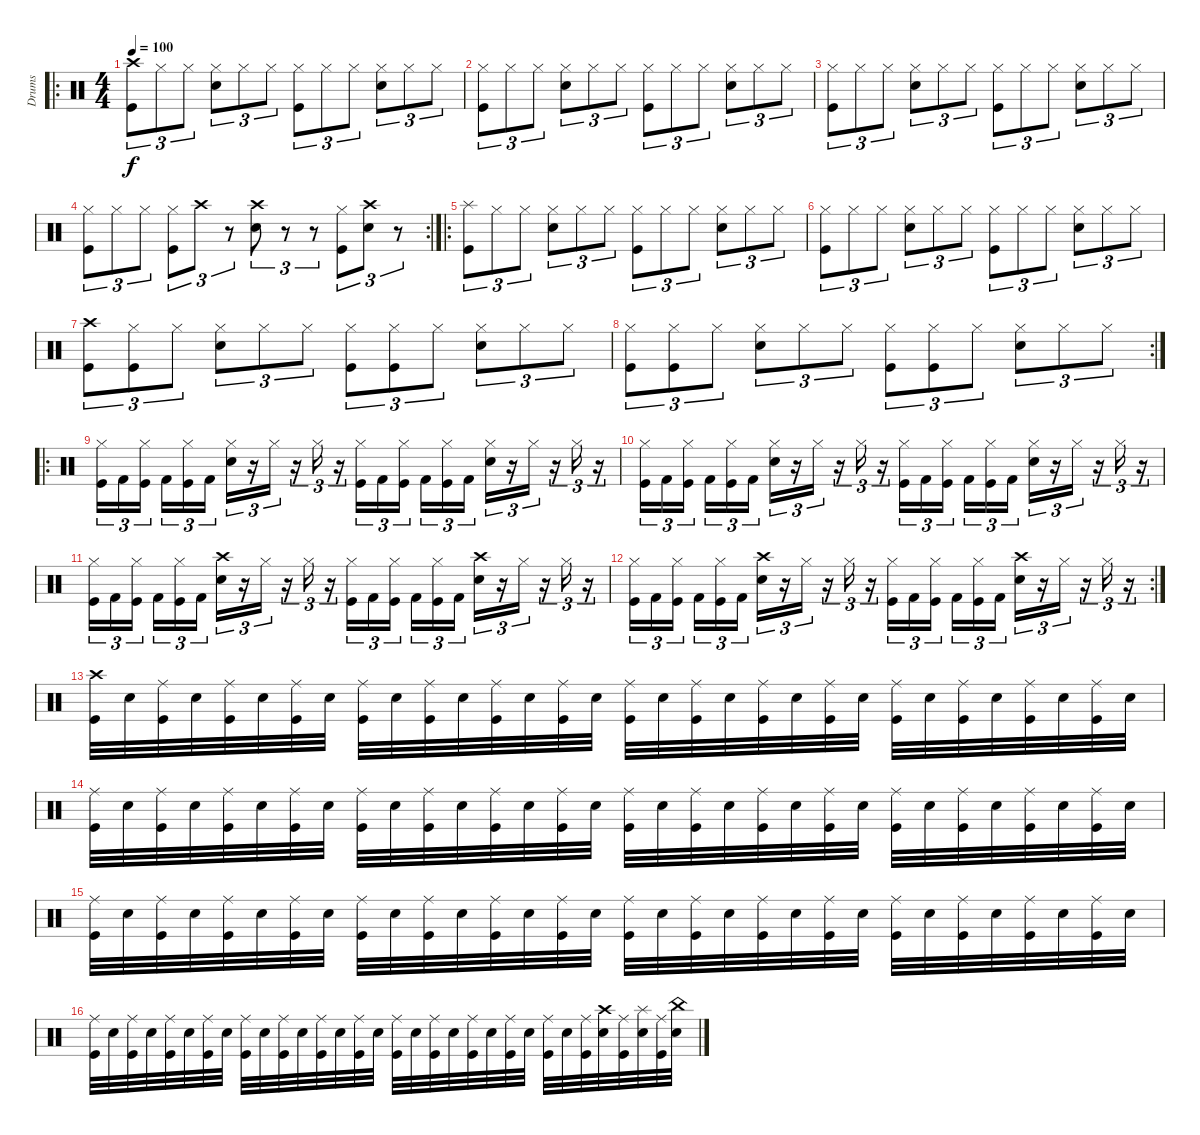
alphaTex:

\track ("Drums" "Drums") {instrument percussion}
\staff {score}
\articulation defaults
\ro
\ts (4 4)
\tempo 100
\clef neutral
\ks c
("Crash high (hit)" "Kick (hit)").8{tu (3 2) dy f} "Hi-Hat (closed)".8{tu (3 2)} "Hi-Hat (closed)".8{tu (3 2)} ("Hi-Hat (closed)" "Snare (hit) 2").8{tu (3 2)} "Hi-Hat (closed)".8{tu (3 2)} "Hi-Hat (closed)".8{tu (3 2)} ("Hi-Hat (closed)" "Kick (hit)").8{tu (3 2)} "Hi-Hat (closed)".8{tu (3 2)} "Hi-Hat (closed)".8{tu (3 2)} ("Hi-Hat (closed)" "Snare (hit) 2").8{tu (3 2)} "Hi-Hat (closed)".8{tu (3 2)} "Hi-Hat (closed)".8{tu (3 2)} |
("Hi-Hat (closed)" "Kick (hit)").8{tu (3 2)} "Hi-Hat (closed)".8{tu (3 2)} "Hi-Hat (closed)".8{tu (3 2)} ("Hi-Hat (closed)" "Snare (hit) 2").8{tu (3 2)} "Hi-Hat (closed)".8{tu (3 2)} "Hi-Hat (closed)".8{tu (3 2)} ("Hi-Hat (closed)" "Kick (hit)").8{tu (3 2)} "Hi-Hat (closed)".8{tu (3 2)} "Hi-Hat (closed)".8{tu (3 2)} ("Hi-Hat (closed)" "Snare (hit) 2").8{tu (3 2)} "Hi-Hat (closed)".8{tu (3 2)} "Hi-Hat (closed)".8{tu (3 2)} |
("Hi-Hat (closed)" "Kick (hit)").8{tu (3 2)} "Hi-Hat (closed)".8{tu (3 2)} "Hi-Hat (closed)".8{tu (3 2)} ("Hi-Hat (closed)" "Snare (hit) 2").8{tu (3 2)} "Hi-Hat (closed)".8{tu (3 2)} "Hi-Hat (closed)".8{tu (3 2)} ("Hi-Hat (closed)" "Kick (hit)").8{tu (3 2)} "Hi-Hat (closed)".8{tu (3 2)} "Hi-Hat (closed)".8{tu (3 2)} ("Hi-Hat (closed)" "Snare (hit) 2").8{tu (3 2)} "Hi-Hat (closed)".8{tu (3 2)} "Hi-Hat (closed)".8{tu (3 2)} |
\rc 2
("Hi-Hat (closed)" "Kick (hit)").8{tu (3 2)} "Hi-Hat (closed)".8{tu (3 2)} "Hi-Hat (closed)".8{tu (3 2)} ("Hi-Hat (closed)" "Kick (hit)").8{tu (3 2)} "Crash high (hit)".8{tu (3 2)} r.8{tu (3 2)} ("Crash high (hit)" "Snare (hit) 2").8{tu (3 2)} r.8{tu (3 2)} r.8{tu (3 2)} ("Hi-Hat (closed)" "Kick (hit)").8{tu (3 2)} ("Crash high (hit)" "Snare (hit) 2").8{tu (3 2)} r.8{tu (3 2)} |
\ro
("Splash (hit)" "Kick (hit)").8{tu (3 2)} "Hi-Hat (closed)".8{tu (3 2)} "Hi-Hat (closed)".8{tu (3 2)} ("Hi-Hat (closed)" "Snare (hit) 2").8{tu (3 2)} "Hi-Hat (closed)".8{tu (3 2)} "Hi-Hat (closed)".8{tu (3 2)} ("Hi-Hat (closed)" "Kick (hit)").8{tu (3 2)} "Hi-Hat (closed)".8{tu (3 2)} "Hi-Hat (closed)".8{tu (3 2)} ("Hi-Hat (closed)" "Snare (hit) 2").8{tu (3 2)} "Hi-Hat (closed)".8{tu (3 2)} "Hi-Hat (closed)".8{tu (3 2)} |
("Hi-Hat (closed)" "Kick (hit)").8{tu (3 2)} "Hi-Hat (closed)".8{tu (3 2)} "Hi-Hat (closed)".8{tu (3 2)} ("Hi-Hat (closed)" "Snare (hit) 2").8{tu (3 2)} "Hi-Hat (closed)".8{tu (3 2)} "Hi-Hat (closed)".8{tu (3 2)} ("Hi-Hat (closed)" "Kick (hit)").8{tu (3 2)} "Hi-Hat (closed)".8{tu (3 2)} "Hi-Hat (closed)".8{tu (3 2)} ("Hi-Hat (closed)" "Snare (hit) 2").8{tu (3 2)} "Hi-Hat (closed)".8{tu (3 2)} "Hi-Hat (closed)".8{tu (3 2)} |
("Crash high (hit)" "Kick (hit)").8{tu (3 2)} ("Kick (hit)" "Hi-Hat (closed)").8{tu (3 2)} "Hi-Hat (closed)".8{tu (3 2)} ("Hi-Hat (closed)" "Snare (hit) 2").8{tu (3 2)} "Hi-Hat (closed)".8{tu (3 2)} "Hi-Hat (closed)".8{tu (3 2)} ("Hi-Hat (closed)" "Kick (hit)").8{tu (3 2)} ("Kick (hit)" "Hi-Hat (closed)").8{tu (3 2)} "Hi-Hat (closed)".8{tu (3 2)} ("Hi-Hat (closed)" "Snare (hit) 2").8{tu (3 2)} "Hi-Hat (closed)".8{tu (3 2)} "Hi-Hat (closed)".8{tu (3 2)} |
\rc 2
("Hi-Hat (closed)" "Kick (hit)").8{tu (3 2)} ("Kick (hit)" "Hi-Hat (closed)").8{tu (3 2)} "Hi-Hat (closed)".8{tu (3 2)} ("Hi-Hat (closed)" "Snare (hit) 2").8{tu (3 2)} "Hi-Hat (closed)".8{tu (3 2)} "Hi-Hat (closed)".8{tu (3 2)} ("Hi-Hat (closed)" "Kick (hit)").8{tu (3 2)} ("Kick (hit)" "Hi-Hat (closed)").8{tu (3 2)} "Hi-Hat (closed)".8{tu (3 2)} ("Hi-Hat (closed)" "Snare (hit) 2").8{tu (3 2)} "Hi-Hat (closed)".8{tu (3 2)} "Hi-Hat (closed)".8{tu (3 2)} |
\ro
("Hi-Hat (closed)" "Kick (hit)").16{tu (3 2)} "Kick (hit) 2".16{tu (3 2)} ("Hi-Hat (closed)" "Kick (hit)").16{tu (3 2)} "Kick (hit) 2".16{tu (3 2)} ("Hi-Hat (closed)" "Kick (hit)").16{tu (3 2)} "Kick (hit) 2".16{tu (3 2)} ("Hi-Hat (closed)" "Snare (hit) 2").16{tu (3 2)} r.16{tu (3 2)} "Hi-Hat (closed)".16{tu (3 2)} r.16{tu (3 2)} "Hi-Hat (closed)".16{tu (3 2)} r.16{tu (3 2)} ("Hi-Hat (closed)" "Kick (hit)").16{tu (3 2)} "Kick (hit) 2".16{tu (3 2)} ("Hi-Hat (closed)" "Kick (hit)").16{tu (3 2)} "Kick (hit) 2".16{tu (3 2)} ("Hi-Hat (closed)" "Kick (hit)").16{tu (3 2)} "Kick (hit) 2".16{tu (3 2)} ("Hi-Hat (closed)" "Snare (hit) 2").16{tu (3 2)} r.16{tu (3 2)} "Hi-Hat (closed)".16{tu (3 2)} r.16{tu (3 2)} "Hi-Hat (closed)".16{tu (3 2)} r.16{tu (3 2)} |
("Hi-Hat (closed)" "Kick (hit)").16{tu (3 2)} "Kick (hit) 2".16{tu (3 2)} ("Hi-Hat (closed)" "Kick (hit)").16{tu (3 2)} "Kick (hit) 2".16{tu (3 2)} ("Hi-Hat (closed)" "Kick (hit)").16{tu (3 2)} "Kick (hit) 2".16{tu (3 2)} ("Hi-Hat (closed)" "Snare (hit) 2").16{tu (3 2)} r.16{tu (3 2)} "Hi-Hat (closed)".16{tu (3 2)} r.16{tu (3 2)} "Hi-Hat (closed)".16{tu (3 2)} r.16{tu (3 2)} ("Hi-Hat (closed)" "Kick (hit)").16{tu (3 2)} "Kick (hit) 2".16{tu (3 2)} ("Hi-Hat (closed)" "Kick (hit)").16{tu (3 2)} "Kick (hit) 2".16{tu (3 2)} ("Hi-Hat (closed)" "Kick (hit)").16{tu (3 2)} "Kick (hit) 2".16{tu (3 2)} ("Hi-Hat (closed)" "Snare (hit) 2").16{tu (3 2)} r.16{tu (3 2)} "Hi-Hat (closed)".16{tu (3 2)} r.16{tu (3 2)} "Hi-Hat (closed)".16{tu (3 2)} r.16{tu (3 2)} |
("Hi-Hat (closed)" "Kick (hit)").16{tu (3 2)} "Kick (hit) 2".16{tu (3 2)} ("Hi-Hat (closed)" "Kick (hit)").16{tu (3 2)} "Kick (hit) 2".16{tu (3 2)} ("Hi-Hat (closed)" "Kick (hit)").16{tu (3 2)} "Kick (hit) 2".16{tu (3 2)} ("Crash high (hit)" "Snare (hit) 2").16{tu (3 2)} r.16{tu (3 2)} "Hi-Hat (closed)".16{tu (3 2)} r.16{tu (3 2)} "Hi-Hat (closed)".16{tu (3 2)} r.16{tu (3 2)} ("Hi-Hat (closed)" "Kick (hit)").16{tu (3 2)} "Kick (hit) 2".16{tu (3 2)} ("Hi-Hat (closed)" "Kick (hit)").16{tu (3 2)} "Kick (hit) 2".16{tu (3 2)} ("Hi-Hat (closed)" "Kick (hit)").16{tu (3 2)} "Kick (hit) 2".16{tu (3 2)} ("Crash high (hit)" "Snare (hit) 2").16{tu (3 2)} r.16{tu (3 2)} "Hi-Hat (closed)".16{tu (3 2)} r.16{tu (3 2)} "Hi-Hat (closed)".16{tu (3 2)} r.16{tu (3 2)} |
\rc 2
("Hi-Hat (closed)" "Kick (hit)").16{tu (3 2)} "Kick (hit) 2".16{tu (3 2)} ("Hi-Hat (closed)" "Kick (hit)").16{tu (3 2)} "Kick (hit) 2".16{tu (3 2)} ("Hi-Hat (closed)" "Kick (hit)").16{tu (3 2)} "Kick (hit) 2".16{tu (3 2)} ("Crash high (hit)" "Snare (hit) 2").16{tu (3 2)} r.16{tu (3 2)} "Hi-Hat (closed)".16{tu (3 2)} r.16{tu (3 2)} "Hi-Hat (closed)".16{tu (3 2)} r.16{tu (3 2)} ("Hi-Hat (closed)" "Kick (hit)").16{tu (3 2)} "Kick (hit) 2".16{tu (3 2)} ("Hi-Hat (closed)" "Kick (hit)").16{tu (3 2)} "Kick (hit) 2".16{tu (3 2)} ("Hi-Hat (closed)" "Kick (hit)").16{tu (3 2)} "Kick (hit) 2".16{tu (3 2)} ("Crash high (hit)" "Snare (hit) 2").16{tu (3 2)} r.16{tu (3 2)} "Hi-Hat (closed)".16{tu (3 2)} r.16{tu (3 2)} "Hi-Hat (closed)".16{tu (3 2)} r.16{tu (3 2)} |
("Crash high (hit)" "Kick (hit)").32 "Snare (hit) 2".32 ("Ride (middle)" "Kick (hit)").32 "Snare (hit) 2".32 ("Ride (middle)" "Kick (hit)").32 "Snare (hit) 2".32 ("Ride (middle)" "Kick (hit)").32 "Snare (hit) 2".32 ("Ride (middle)" "Kick (hit)").32 "Snare (hit) 2".32 ("Ride (middle)" "Kick (hit)").32 "Snare (hit) 2".32 ("Ride (middle)" "Kick (hit)").32 "Snare (hit) 2".32 ("Ride (middle)" "Kick (hit)").32 "Snare (hit) 2".32 ("Ride (middle)" "Kick (hit)").32 "Snare (hit) 2".32 ("Ride (middle)" "Kick (hit)").32 "Snare (hit) 2".32 ("Ride (middle)" "Kick (hit)").32 "Snare (hit) 2".32 ("Ride (middle)" "Kick (hit)").32 "Snare (hit) 2".32 ("Ride (middle)" "Kick (hit)").32 "Snare (hit) 2".32 ("Ride (middle)" "Kick (hit)").32 "Snare (hit) 2".32 ("Ride (middle)" "Kick (hit)").32 "Snare (hit) 2".32 ("Ride (middle)" "Kick (hit)").32 "Snare (hit) 2".32 |
("Ride (middle)" "Kick (hit)").32 "Snare (hit) 2".32 ("Ride (middle)" "Kick (hit)").32 "Snare (hit) 2".32 ("Ride (middle)" "Kick (hit)").32 "Snare (hit) 2".32 ("Ride (middle)" "Kick (hit)").32 "Snare (hit) 2".32 ("Ride (middle)" "Kick (hit)").32 "Snare (hit) 2".32 ("Ride (middle)" "Kick (hit)").32 "Snare (hit) 2".32 ("Ride (middle)" "Kick (hit)").32 "Snare (hit) 2".32 ("Ride (middle)" "Kick (hit)").32 "Snare (hit) 2".32 ("Ride (middle)" "Kick (hit)").32 "Snare (hit) 2".32 ("Ride (middle)" "Kick (hit)").32 "Snare (hit) 2".32 ("Ride (middle)" "Kick (hit)").32 "Snare (hit) 2".32 ("Ride (middle)" "Kick (hit)").32 "Snare (hit) 2".32 ("Ride (middle)" "Kick (hit)").32 "Snare (hit) 2".32 ("Ride (middle)" "Kick (hit)").32 "Snare (hit) 2".32 ("Ride (middle)" "Kick (hit)").32 "Snare (hit) 2".32 ("Ride (middle)" "Kick (hit)").32 "Snare (hit) 2".32 |
("Ride (middle)" "Kick (hit)").32 "Snare (hit) 2".32 ("Ride (middle)" "Kick (hit)").32 "Snare (hit) 2".32 ("Ride (middle)" "Kick (hit)").32 "Snare (hit) 2".32 ("Ride (middle)" "Kick (hit)").32 "Snare (hit) 2".32 ("Ride (middle)" "Kick (hit)").32 "Snare (hit) 2".32 ("Ride (middle)" "Kick (hit)").32 "Snare (hit) 2".32 ("Ride (middle)" "Kick (hit)").32 "Snare (hit) 2".32 ("Ride (middle)" "Kick (hit)").32 "Snare (hit) 2".32 ("Ride (middle)" "Kick (hit)").32 "Snare (hit) 2".32 ("Ride (middle)" "Kick (hit)").32 "Snare (hit) 2".32 ("Ride (middle)" "Kick (hit)").32 "Snare (hit) 2".32 ("Ride (middle)" "Kick (hit)").32 "Snare (hit) 2".32 ("Ride (middle)" "Kick (hit)").32 "Snare (hit) 2".32 ("Ride (middle)" "Kick (hit)").32 "Snare (hit) 2".32 ("Ride (middle)" "Kick (hit)").32 "Snare (hit) 2".32 ("Ride (middle)" "Kick (hit)").32 "Snare (hit) 2".32 |
("Ride (middle)" "Kick (hit)").32 "Snare (hit) 2".32 ("Ride (middle)" "Kick (hit)").32 "Snare (hit) 2".32 ("Ride (middle)" "Kick (hit)").32 "Snare (hit) 2".32 ("Ride (middle)" "Kick (hit)").32 "Snare (hit) 2".32 ("Ride (middle)" "Kick (hit)").32 "Snare (hit) 2".32 ("Ride (middle)" "Kick (hit)").32 "Snare (hit) 2".32 ("Ride (middle)" "Kick (hit)").32 "Snare (hit) 2".32 ("Ride (middle)" "Kick (hit)").32 "Snare (hit) 2".32 ("Ride (middle)" "Kick (hit)").32 "Snare (hit) 2".32 ("Ride (middle)" "Kick (hit)").32 "Snare (hit) 2".32 ("Ride (middle)" "Kick (hit)").32 "Snare (hit) 2".32 ("Ride (middle)" "Kick (hit)").32 "Snare (hit) 2".32 ("Ride (middle)" "Kick (hit)").32 "Snare (hit) 2".32 ("Ride (middle)" "Kick (hit)").32 ("Crash high (hit)" "Snare (hit) 2").32 ("Ride (middle)" "Kick (hit)").32 ("Splash (hit)" "Snare (hit) 2").32 ("Ride (middle)" "Kick (hit)").32 ("China (hit)" "Snare (hit) 2").32
